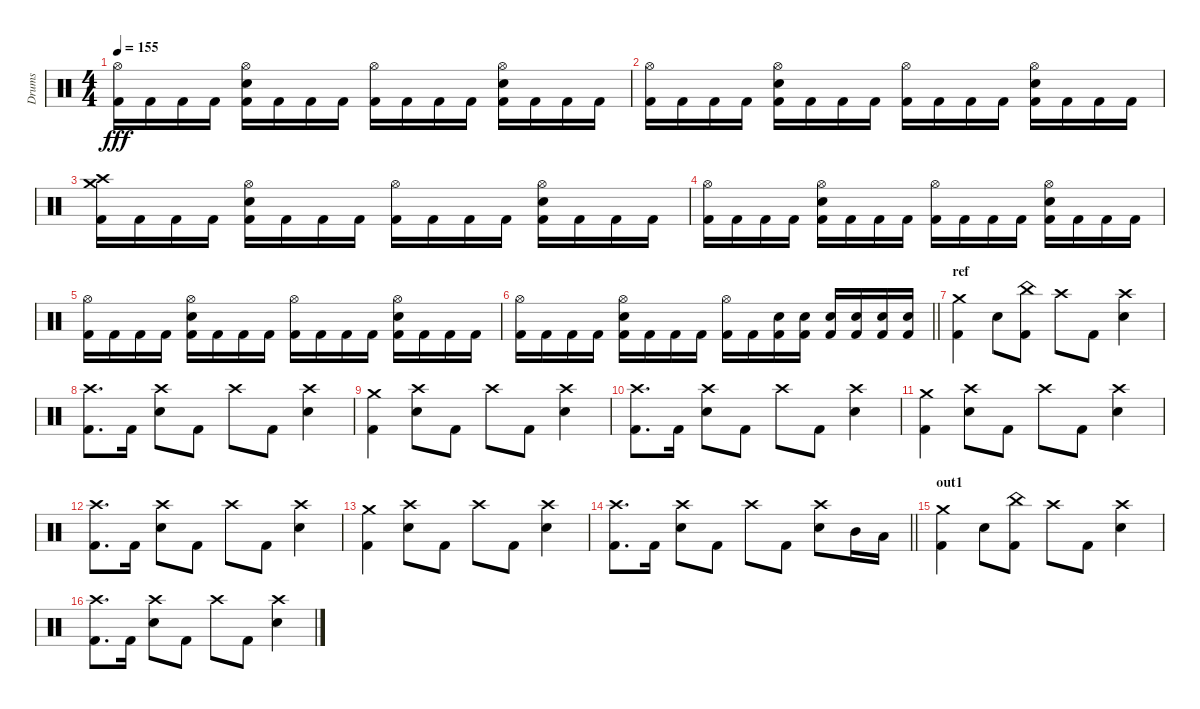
\track ("Drums" "Drums") {instrument percussion}
\staff {score}
\articulation defaults
\ts (4 4)
\tempo 155
\clef neutral
\ks c
("Hi-Hat (open)" "Kick (hit) 2").16{dy fff} "Kick (hit) 2".16 "Kick (hit) 2".16 "Kick (hit) 2".16 ("Snare (hit) 2" "Hi-Hat (open)" "Kick (hit) 2").16 "Kick (hit) 2".16 "Kick (hit) 2".16 "Kick (hit) 2".16 ("Hi-Hat (open)" "Kick (hit) 2").16 "Kick (hit) 2".16 "Kick (hit) 2".16 "Kick (hit) 2".16 ("Snare (hit) 2" "Hi-Hat (open)" "Kick (hit) 2").16 "Kick (hit) 2".16 "Kick (hit) 2".16 "Kick (hit) 2".16 |
("Hi-Hat (open)" "Kick (hit) 2").16 "Kick (hit) 2".16 "Kick (hit) 2".16 "Kick (hit) 2".16 ("Snare (hit) 2" "Hi-Hat (open)" "Kick (hit) 2").16 "Kick (hit) 2".16 "Kick (hit) 2".16 "Kick (hit) 2".16 ("Hi-Hat (open)" "Kick (hit) 2").16 "Kick (hit) 2".16 "Kick (hit) 2".16 "Kick (hit) 2".16 ("Snare (hit) 2" "Hi-Hat (open)" "Kick (hit) 2").16 "Kick (hit) 2".16 "Kick (hit) 2".16 "Kick (hit) 2".16 |
("Crash high (hit)" "Crash medium (hit)" "Kick (hit) 2").16 "Kick (hit) 2".16 "Kick (hit) 2".16 "Kick (hit) 2".16 ("Snare (hit) 2" "Hi-Hat (open)" "Kick (hit) 2").16 "Kick (hit) 2".16 "Kick (hit) 2".16 "Kick (hit) 2".16 ("Hi-Hat (open)" "Kick (hit) 2").16 "Kick (hit) 2".16 "Kick (hit) 2".16 "Kick (hit) 2".16 ("Snare (hit) 2" "Hi-Hat (open)" "Kick (hit) 2").16 "Kick (hit) 2".16 "Kick (hit) 2".16 "Kick (hit) 2".16 |
("Hi-Hat (open)" "Kick (hit) 2").16 "Kick (hit) 2".16 "Kick (hit) 2".16 "Kick (hit) 2".16 ("Snare (hit) 2" "Hi-Hat (open)" "Kick (hit) 2").16 "Kick (hit) 2".16 "Kick (hit) 2".16 "Kick (hit) 2".16 ("Hi-Hat (open)" "Kick (hit) 2").16 "Kick (hit) 2".16 "Kick (hit) 2".16 "Kick (hit) 2".16 ("Snare (hit) 2" "Hi-Hat (open)" "Kick (hit) 2").16 "Kick (hit) 2".16 "Kick (hit) 2".16 "Kick (hit) 2".16 |
("Hi-Hat (open)" "Kick (hit) 2").16 "Kick (hit) 2".16 "Kick (hit) 2".16 "Kick (hit) 2".16 ("Snare (hit) 2" "Hi-Hat (open)" "Kick (hit) 2").16 "Kick (hit) 2".16 "Kick (hit) 2".16 "Kick (hit) 2".16 ("Hi-Hat (open)" "Kick (hit) 2").16 "Kick (hit) 2".16 "Kick (hit) 2".16 "Kick (hit) 2".16 ("Snare (hit) 2" "Hi-Hat (open)" "Kick (hit) 2").16 "Kick (hit) 2".16 "Kick (hit) 2".16 "Kick (hit) 2".16 |
\barLineRight lightlight
("Hi-Hat (open)" "Kick (hit) 2").16 "Kick (hit) 2".16 "Kick (hit) 2".16 "Kick (hit) 2".16 ("Snare (hit) 2" "Hi-Hat (open)" "Kick (hit) 2").16 "Kick (hit) 2".16 "Kick (hit) 2".16 "Kick (hit) 2".16 ("Hi-Hat (open)" "Kick (hit) 2").16 "Kick (hit) 2".16 ("Snare (hit) 2" "Kick (hit) 2").16 ("Snare (hit) 2" "Kick (hit) 2").16 ("Snare (hit) 2" "Kick (hit) 2").16 ("Snare (hit) 2" "Kick (hit) 2").16 ("Snare (hit) 2" "Kick (hit) 2").16 ("Snare (hit) 2" "Kick (hit) 2").16 |
\section ("" "ref")
("Crash medium (hit)" "Kick (hit) 2").4 "Snare (hit) 2".8 ("China (hit)" "Kick (hit) 2").8 "Crash high (hit)".8 "Kick (hit) 2".8 ("Crash high (hit)" "Snare (hit) 2").4 |
("Crash high (hit)" "Kick (hit) 2").8{d} "Kick (hit) 2".16 ("Crash high (hit)" "Snare (hit) 2").8 "Kick (hit) 2".8 "Crash high (hit)".8 "Kick (hit) 2".8 ("Crash high (hit)" "Snare (hit) 2").4 |
("Crash medium (hit)" "Kick (hit) 2").4 ("Crash high (hit)" "Snare (hit) 2").8 "Kick (hit) 2".8 "Crash high (hit)".8 "Kick (hit) 2".8 ("Crash high (hit)" "Snare (hit) 2").4 |
("Crash high (hit)" "Kick (hit) 2").8{d} "Kick (hit) 2".16 ("Crash high (hit)" "Snare (hit) 2").8 "Kick (hit) 2".8 "Crash high (hit)".8 "Kick (hit) 2".8 ("Crash high (hit)" "Snare (hit) 2").4 |
("Crash medium (hit)" "Kick (hit) 2").4 ("Crash high (hit)" "Snare (hit) 2").8 "Kick (hit) 2".8 "Crash high (hit)".8 "Kick (hit) 2".8 ("Crash high (hit)" "Snare (hit) 2").4 |
("Crash high (hit)" "Kick (hit) 2").8{d} "Kick (hit) 2".16 ("Crash high (hit)" "Snare (hit) 2").8 "Kick (hit) 2".8 "Crash high (hit)".8 "Kick (hit) 2".8 ("Crash high (hit)" "Snare (hit) 2").4 |
("Crash medium (hit)" "Kick (hit) 2").4 ("Crash high (hit)" "Snare (hit) 2").8 "Kick (hit) 2".8 "Crash high (hit)".8 "Kick (hit) 2".8 ("Crash high (hit)" "Snare (hit) 2").4 |
\barLineRight lightlight
("Crash high (hit)" "Kick (hit) 2").8{d} "Kick (hit) 2".16 ("Crash high (hit)" "Snare (hit) 2").8 "Kick (hit) 2".8 "Crash high (hit)".8 "Kick (hit) 2".8 ("Crash high (hit)" "Snare (hit) 2").8 "Mid Tom (hit)".16 "Low Tom (hit)".16 |
\section ("" "out1")
("Crash medium (hit)" "Kick (hit) 2").4 "Snare (hit) 2".8 ("China (hit)" "Kick (hit) 2").8 "Crash high (hit)".8 "Kick (hit) 2".8 ("Crash high (hit)" "Snare (hit) 2").4 |
("Crash high (hit)" "Kick (hit) 2").8{d} "Kick (hit) 2".16 ("Crash high (hit)" "Snare (hit) 2").8 "Kick (hit) 2".8 "Crash high (hit)".8 "Kick (hit) 2".8 ("Crash high (hit)" "Snare (hit) 2").4
